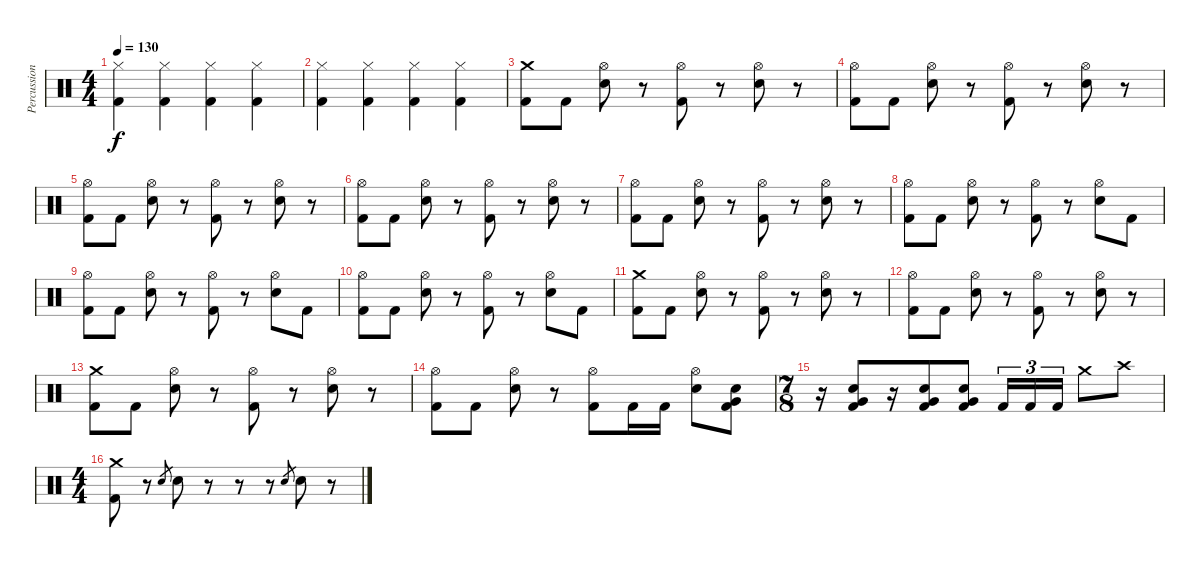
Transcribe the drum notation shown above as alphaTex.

\track ("Percussions" "Percussion") {instrument percussion}
\staff {score}
\articulation defaults
\ts (4 4)
\tempo 130
\clef neutral
\ks c
("Hi-Hat (closed)" "Kick (hit) 2").4{dy f} ("Hi-Hat (closed)" "Kick (hit) 2").4 ("Hi-Hat (closed)" "Kick (hit) 2").4 ("Hi-Hat (closed)" "Kick (hit) 2").4 |
("Hi-Hat (closed)" "Kick (hit) 2").4 ("Hi-Hat (closed)" "Kick (hit) 2").4 ("Hi-Hat (closed)" "Kick (hit) 2").4 ("Hi-Hat (closed)" "Kick (hit) 2").4 |
("Crash medium (hit)" "Kick (hit) 2").8 "Kick (hit) 2".8 ("Hi-Hat (open)" "Electric Snare (hit)").8 r.8 ("Hi-Hat (open)" "Kick (hit) 2").8 r.8 ("Hi-Hat (open)" "Electric Snare (hit)").8 r.8 |
("Hi-Hat (open)" "Kick (hit) 2").8 "Kick (hit) 2".8 ("Hi-Hat (open)" "Electric Snare (hit)").8 r.8 ("Hi-Hat (open)" "Kick (hit) 2").8 r.8 ("Hi-Hat (open)" "Electric Snare (hit)").8 r.8 |
("Hi-Hat (open)" "Kick (hit) 2").8 "Kick (hit) 2".8 ("Hi-Hat (open)" "Electric Snare (hit)").8 r.8 ("Hi-Hat (open)" "Kick (hit) 2").8 r.8 ("Hi-Hat (open)" "Electric Snare (hit)").8 r.8 |
("Hi-Hat (open)" "Kick (hit) 2").8 "Kick (hit) 2".8 ("Hi-Hat (open)" "Electric Snare (hit)").8 r.8 ("Hi-Hat (open)" "Kick (hit) 2").8 r.8 ("Hi-Hat (open)" "Electric Snare (hit)").8 r.8 |
("Hi-Hat (open)" "Kick (hit) 2").8 "Kick (hit) 2".8 ("Hi-Hat (open)" "Electric Snare (hit)").8 r.8 ("Hi-Hat (open)" "Kick (hit) 2").8 r.8 ("Hi-Hat (open)" "Electric Snare (hit)").8 r.8 |
("Hi-Hat (open)" "Kick (hit) 2").8 "Kick (hit) 2".8 ("Hi-Hat (open)" "Electric Snare (hit)").8 r.8 ("Hi-Hat (open)" "Kick (hit) 2").8 r.8 ("Hi-Hat (open)" "Electric Snare (hit)").8 "Kick (hit) 2".8 |
("Hi-Hat (open)" "Kick (hit) 2").8 "Kick (hit) 2".8 ("Hi-Hat (open)" "Electric Snare (hit)").8 r.8 ("Hi-Hat (open)" "Kick (hit) 2").8 r.8 ("Hi-Hat (open)" "Electric Snare (hit)").8 "Kick (hit) 2".8 |
("Hi-Hat (open)" "Kick (hit) 2").8 "Kick (hit) 2".8 ("Hi-Hat (open)" "Electric Snare (hit)").8 r.8 ("Hi-Hat (open)" "Kick (hit) 2").8 r.8 ("Hi-Hat (open)" "Electric Snare (hit)").8 "Kick (hit) 2".8 |
("Crash medium (hit)" "Kick (hit) 2").8 "Kick (hit) 2".8 ("Hi-Hat (open)" "Electric Snare (hit)").8 r.8 ("Hi-Hat (open)" "Kick (hit) 2").8 r.8 ("Hi-Hat (open)" "Electric Snare (hit)").8 r.8 |
("Hi-Hat (open)" "Kick (hit) 2").8 "Kick (hit) 2".8 ("Hi-Hat (open)" "Electric Snare (hit)").8 r.8 ("Hi-Hat (open)" "Kick (hit) 2").8 r.8 ("Hi-Hat (open)" "Electric Snare (hit)").8 r.8 |
("Crash medium (hit)" "Kick (hit) 2").8 "Kick (hit) 2".8 ("Hi-Hat (open)" "Electric Snare (hit)").8 r.8 ("Hi-Hat (open)" "Kick (hit) 2").8 r.8 ("Hi-Hat (open)" "Electric Snare (hit)").8 r.8 |
("Hi-Hat (open)" "Kick (hit) 2").8 "Kick (hit) 2".8 ("Hi-Hat (open)" "Electric Snare (hit)").8 r.8 ("Hi-Hat (open)" "Kick (hit) 2").8 "Kick (hit) 2".16 "Kick (hit) 2".16 ("Hi-Hat (open)" "Electric Snare (hit)").8 ("Electric Snare (hit)" "Very Low Tom (hit)" "Kick (hit) 2").8 |
\ts (7 8)
r.16 ("Electric Snare (hit)" "Very Low Tom (hit)" "Kick (hit) 2").8 r.16 ("Electric Snare (hit)" "Very Low Tom (hit)" "Kick (hit) 2").8 ("Electric Snare (hit)" "Very Low Tom (hit)" "Kick (hit) 2").8 "Kick (hit) 2".16{tu (3 2)} "Kick (hit) 2".16{tu (3 2)} "Kick (hit) 2".16{tu (3 2)} "Crash medium (hit)".8 "Crash high (hit)".8 |
\ts (4 4)
("Crash medium (hit)" "Kick (hit) 2").8 r.8 "Electric Snare (hit)".8{gr} "Electric Snare (hit)".8 r.8 r.8 r.8 "Electric Snare (hit)".8{gr} "Electric Snare (hit)".8 r.8
